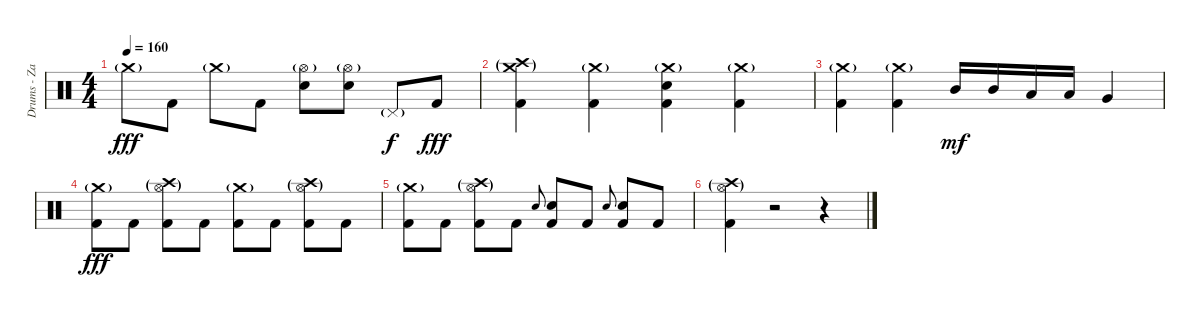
\track ("Drums - Zac Farro" "Drums - Za") {instrument percussion}
\staff {score}
\articulation defaults
\ts (4 4)
\tempo 160
\clef neutral
\ks c "Crash medium (hit)"{g}.8{dy fff} "Kick (hit) 2".8 "Crash medium (hit)"{g}.8 "Kick (hit) 2".8
("Hi-Hat (open)"{g} "Electric Snare (hit)").8 ("Hi-Hat (open)"{g} "Electric Snare (hit)").8 "Pedal Hi-Hat (hit)"{g}.8{dy f} "Kick (hit) 2".8{dy fff} |
("Crash medium (hit)"{g} "Crash high (hit)"{g} "Kick (hit) 2").4 ("Crash medium (hit)"{g} "Kick (hit) 2").4 ("Crash medium (hit)"{g} "Electric Snare (hit)" "Kick (hit) 2").4 ("Crash medium (hit)"{g} "Kick (hit) 2").4 |
("Crash medium (hit)"{g} "Kick (hit) 2").4 ("Crash medium (hit)"{g} "Kick (hit) 2").4 "Mid Tom (hit)".16{dy mf} "Mid Tom (hit)".16 "Low Tom (hit)".16 "Low Tom (hit)".16 "Very Low Tom (hit)".4 |
("Crash medium (hit)"{g} "Kick (hit) 2").8{dy fff} "Kick (hit) 2".8 ("Crash high (hit)"{g} "Hi-Hat (open)"{g} "Kick (hit) 2").8 "Kick (hit) 2".8 ("Crash medium (hit)"{g} "Kick (hit) 2").8 "Kick (hit) 2".8 ("Crash high (hit)"{g} "Hi-Hat (open)"{g} "Kick (hit) 2").8 "Kick (hit) 2".8 |
("Crash medium (hit)"{g} "Kick (hit) 2").8 "Kick (hit) 2".8 ("Crash high (hit)"{g} "Hi-Hat (open)"{g} "Kick (hit) 2").8 "Kick (hit) 2".8 "Electric Snare (hit)".8{gr onbeat} ("Electric Snare (hit)" "Kick (hit) 2").8 "Kick (hit) 2".8 "Electric Snare (hit)".8{gr onbeat} ("Electric Snare (hit)" "Kick (hit) 2").8 "Kick (hit) 2".8 |
("Crash high (hit)"{g} "Hi-Hat (open)"{g} "Kick (hit) 2").4 r.2 r.4
